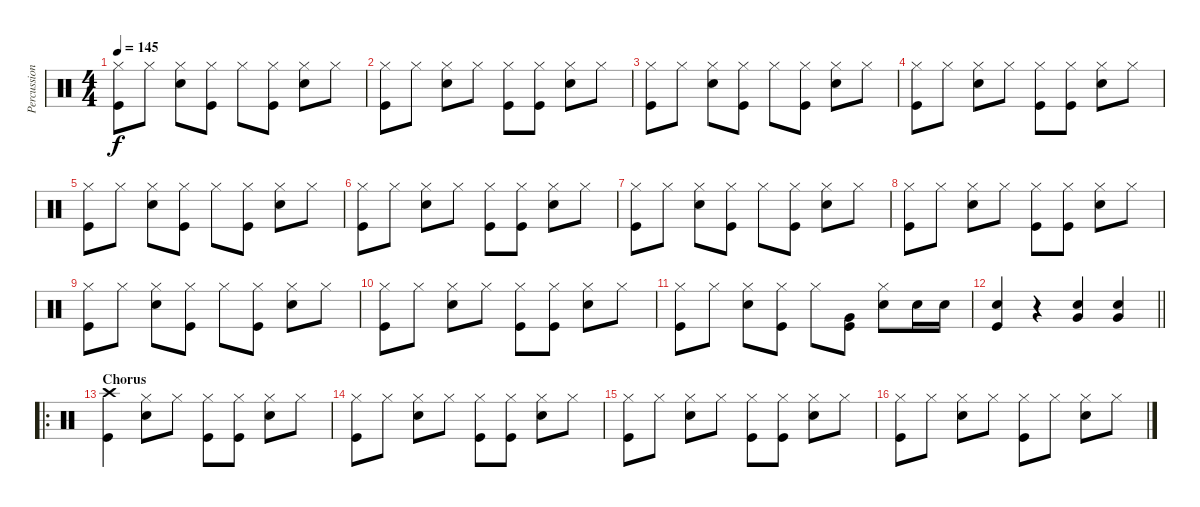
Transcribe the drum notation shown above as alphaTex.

\track ("Percussion" "Percussion") {instrument percussion}
\staff {score}
\articulation defaults
\ts (4 4)
\tempo 145
\clef neutral
\ks c
("Kick (hit)" "Hi-Hat (closed)").8{dy f} "Hi-Hat (closed)".8 ("Hi-Hat (closed)" "Snare (hit) 2").8 ("Kick (hit)" "Hi-Hat (closed)").8 "Hi-Hat (closed)".8 ("Kick (hit)" "Hi-Hat (closed)").8 ("Hi-Hat (closed)" "Snare (hit) 2").8 "Hi-Hat (closed)".8 |
("Kick (hit)" "Hi-Hat (closed)").8 "Hi-Hat (closed)".8 ("Hi-Hat (closed)" "Snare (hit) 2").8 "Hi-Hat (closed)".8 ("Kick (hit)" "Hi-Hat (closed)").8 ("Kick (hit)" "Hi-Hat (closed)").8 ("Hi-Hat (closed)" "Snare (hit) 2").8 "Hi-Hat (closed)".8 |
("Kick (hit)" "Hi-Hat (closed)").8 "Hi-Hat (closed)".8 ("Hi-Hat (closed)" "Snare (hit) 2").8 ("Kick (hit)" "Hi-Hat (closed)").8 "Hi-Hat (closed)".8 ("Kick (hit)" "Hi-Hat (closed)").8 ("Hi-Hat (closed)" "Snare (hit) 2").8 "Hi-Hat (closed)".8 |
("Kick (hit)" "Hi-Hat (closed)").8 "Hi-Hat (closed)".8 ("Hi-Hat (closed)" "Snare (hit) 2").8 "Hi-Hat (closed)".8 ("Kick (hit)" "Hi-Hat (closed)").8 ("Kick (hit)" "Hi-Hat (closed)").8 ("Hi-Hat (closed)" "Snare (hit) 2").8 "Hi-Hat (closed)".8 |
("Kick (hit)" "Hi-Hat (closed)").8 "Hi-Hat (closed)".8 ("Hi-Hat (closed)" "Snare (hit) 2").8 ("Kick (hit)" "Hi-Hat (closed)").8 "Hi-Hat (closed)".8 ("Kick (hit)" "Hi-Hat (closed)").8 ("Hi-Hat (closed)" "Snare (hit) 2").8 "Hi-Hat (closed)".8 |
("Kick (hit)" "Hi-Hat (closed)").8 "Hi-Hat (closed)".8 ("Hi-Hat (closed)" "Snare (hit) 2").8 "Hi-Hat (closed)".8 ("Kick (hit)" "Hi-Hat (closed)").8 ("Kick (hit)" "Hi-Hat (closed)").8 ("Hi-Hat (closed)" "Snare (hit) 2").8 "Hi-Hat (closed)".8 |
("Kick (hit)" "Hi-Hat (closed)").8 "Hi-Hat (closed)".8 ("Hi-Hat (closed)" "Snare (hit) 2").8 ("Kick (hit)" "Hi-Hat (closed)").8 "Hi-Hat (closed)".8 ("Kick (hit)" "Hi-Hat (closed)").8 ("Hi-Hat (closed)" "Snare (hit) 2").8 "Hi-Hat (closed)".8 |
("Kick (hit)" "Hi-Hat (closed)").8 "Hi-Hat (closed)".8 ("Hi-Hat (closed)" "Snare (hit) 2").8 "Hi-Hat (closed)".8 ("Kick (hit)" "Hi-Hat (closed)").8 ("Kick (hit)" "Hi-Hat (closed)").8 ("Hi-Hat (closed)" "Snare (hit) 2").8 "Hi-Hat (closed)".8 |
("Kick (hit)" "Hi-Hat (closed)").8 "Hi-Hat (closed)".8 ("Hi-Hat (closed)" "Snare (hit) 2").8 ("Kick (hit)" "Hi-Hat (closed)").8 "Hi-Hat (closed)".8 ("Kick (hit)" "Hi-Hat (closed)").8 ("Hi-Hat (closed)" "Snare (hit) 2").8 "Hi-Hat (closed)".8 |
("Kick (hit)" "Hi-Hat (closed)").8 "Hi-Hat (closed)".8 ("Hi-Hat (closed)" "Snare (hit) 2").8 "Hi-Hat (closed)".8 ("Kick (hit)" "Hi-Hat (closed)").8 ("Kick (hit)" "Hi-Hat (closed)").8 ("Hi-Hat (closed)" "Snare (hit) 2").8 "Hi-Hat (closed)".8 |
("Kick (hit)" "Hi-Hat (closed)").8 "Hi-Hat (closed)".8 ("Hi-Hat (closed)" "Snare (hit) 2").8 ("Kick (hit)" "Hi-Hat (closed)").8 "Hi-Hat (closed)".8 ("Kick (hit)" "Very Low Tom (hit)").8 ("Hi-Hat (closed)" "Snare (hit) 2").8 "Snare (hit) 2".16 "Snare (hit) 2".16 |
\barLineRight lightlight
("Kick (hit)" "Snare (hit) 2").4 r.4 ("Very Low Tom (hit)" "Snare (hit) 2").4 ("Very Low Tom (hit)" "Snare (hit) 2").4 |
\ro
\section ("" "Chorus")
("Kick (hit)" "Crash high (hit)").4 ("Hi-Hat (closed)" "Snare (hit) 2").8 "Hi-Hat (closed)".8 ("Kick (hit)" "Hi-Hat (closed)").8 ("Kick (hit)" "Hi-Hat (closed)").8 ("Hi-Hat (closed)" "Snare (hit) 2").8 "Hi-Hat (closed)".8 |
("Kick (hit)" "Hi-Hat (closed)").8 "Hi-Hat (closed)".8 ("Hi-Hat (closed)" "Snare (hit) 2").8 "Hi-Hat (closed)".8 ("Kick (hit)" "Hi-Hat (closed)").8 ("Kick (hit)" "Hi-Hat (closed)").8 ("Hi-Hat (closed)" "Snare (hit) 2").8 "Hi-Hat (closed)".8 |
("Kick (hit)" "Hi-Hat (closed)").8 "Hi-Hat (closed)".8 ("Hi-Hat (closed)" "Snare (hit) 2").8 "Hi-Hat (closed)".8 ("Kick (hit)" "Hi-Hat (closed)").8 ("Kick (hit)" "Hi-Hat (closed)").8 ("Hi-Hat (closed)" "Snare (hit) 2").8 "Hi-Hat (closed)".8 |
("Kick (hit)" "Hi-Hat (closed)").8 "Hi-Hat (closed)".8 ("Hi-Hat (closed)" "Snare (hit) 2").8 "Hi-Hat (closed)".8 ("Kick (hit)" "Hi-Hat (closed)").8 "Hi-Hat (closed)".8 ("Hi-Hat (closed)" "Snare (hit) 2").8 "Hi-Hat (closed)".8
